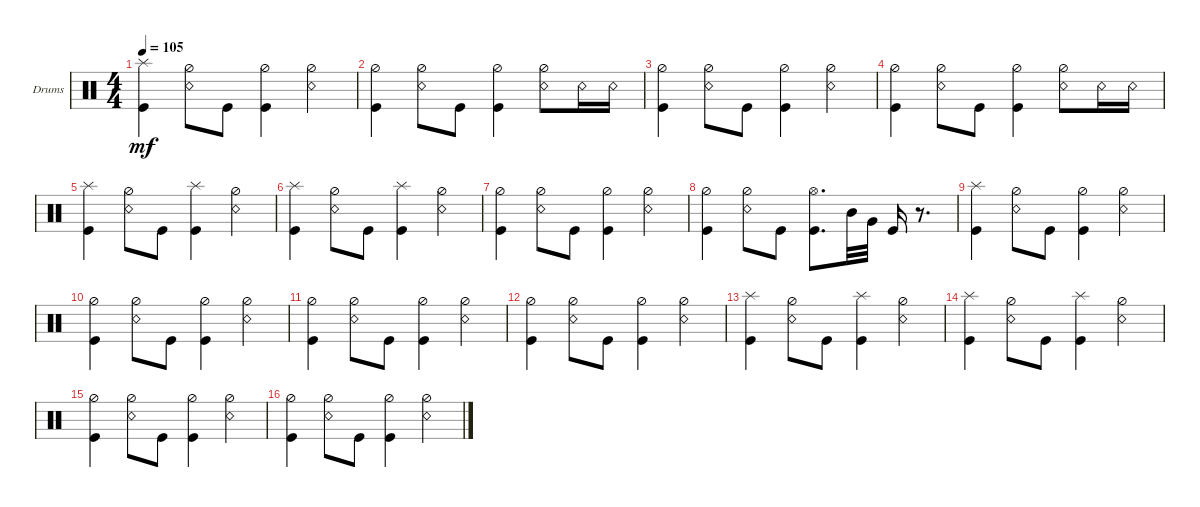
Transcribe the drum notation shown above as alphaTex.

\defaultSystemsLayout 4
\bracketExtendMode groupsimilarinstruments
\firstSystemTrackNameOrientation horizontal
\otherSystemsTrackNameOrientation horizontal
\track ("Drumkit" "Drums") {instrument percussion}
\staff {score}
\articulation defaults
\ts (4 4)
\tempo 105
\clef neutral
\ks c
("Kick (hit)" "Splash (hit)").4{dy mf} ("Snare (rim shot)" "Hi-Hat (half)").8 "Kick (hit)".8 ("Kick (hit)" "Hi-Hat (half)").4 ("Snare (rim shot)" "Hi-Hat (half)").4 |
("Kick (hit)" "Hi-Hat (half)").4 ("Snare (rim shot)" "Hi-Hat (half)").8 "Kick (hit)".8 ("Kick (hit)" "Hi-Hat (half)").4 ("Snare (rim shot)" "Hi-Hat (half)").8 "Snare (rim shot)".16 "Snare (rim shot)".16 |
("Kick (hit)" "Hi-Hat (half)").4 ("Snare (rim shot)" "Hi-Hat (half)").8 "Kick (hit)".8 ("Kick (hit)" "Hi-Hat (half)").4 ("Snare (rim shot)" "Hi-Hat (half)").4 |
("Kick (hit)" "Hi-Hat (half)").4 ("Snare (rim shot)" "Hi-Hat (half)").8 "Kick (hit)".8 ("Kick (hit)" "Hi-Hat (half)").4 ("Snare (rim shot)" "Hi-Hat (half)").8 "Snare (rim shot)".16 "Snare (rim shot)".16 |
("Kick (hit)" "Splash (hit)").4 ("Snare (rim shot)" "Hi-Hat (half)").8 "Kick (hit)".8 ("Kick (hit)" "Splash (hit)").4 ("Snare (rim shot)" "Hi-Hat (half)").4 |
("Kick (hit)" "Splash (hit)").4 ("Snare (rim shot)" "Hi-Hat (half)").8 "Kick (hit)".8 ("Kick (hit)" "Splash (hit)").4 ("Snare (rim shot)" "Hi-Hat (half)").4 |
("Kick (hit)" "Hi-Hat (half)").4 ("Snare (rim shot)" "Hi-Hat (half)").8 "Kick (hit)".8 ("Kick (hit)" "Hi-Hat (half)").4 ("Snare (rim shot)" "Hi-Hat (half)").4 |
("Kick (hit)" "Hi-Hat (half)").4 ("Snare (rim shot)" "Hi-Hat (half)").8 "Kick (hit)".8 ("Kick (hit)" "Hi-Hat (open)").8{d} "Mid Tom (hit)".32 "Very Low Tom (hit)".32 "Kick (hit)".16 r.8{d} |
("Kick (hit)" "Splash (hit)").4 ("Snare (rim shot)" "Hi-Hat (half)").8 "Kick (hit)".8 ("Kick (hit)" "Hi-Hat (half)").4 ("Snare (rim shot)" "Hi-Hat (half)").4 |
("Kick (hit)" "Hi-Hat (half)").4 ("Snare (rim shot)" "Hi-Hat (half)").8 "Kick (hit)".8 ("Kick (hit)" "Hi-Hat (half)").4 ("Snare (rim shot)" "Hi-Hat (half)").4 |
("Kick (hit)" "Hi-Hat (half)").4 ("Snare (rim shot)" "Hi-Hat (half)").8 "Kick (hit)".8 ("Kick (hit)" "Hi-Hat (half)").4 ("Snare (rim shot)" "Hi-Hat (half)").4 |
("Kick (hit)" "Hi-Hat (half)").4 ("Snare (rim shot)" "Hi-Hat (half)").8 "Kick (hit)".8 ("Kick (hit)" "Hi-Hat (half)").4 ("Snare (rim shot)" "Hi-Hat (half)").4 |
("Kick (hit)" "Splash (hit)").4 ("Snare (rim shot)" "Hi-Hat (half)").8 "Kick (hit)".8 ("Kick (hit)" "Splash (hit)").4 ("Snare (rim shot)" "Hi-Hat (half)").4 |
("Kick (hit)" "Splash (hit)").4 ("Snare (rim shot)" "Hi-Hat (half)").8 "Kick (hit)".8 ("Kick (hit)" "Splash (hit)").4 ("Snare (rim shot)" "Hi-Hat (half)").4 |
("Kick (hit)" "Hi-Hat (half)").4 ("Snare (rim shot)" "Hi-Hat (half)").8 "Kick (hit)".8 ("Kick (hit)" "Hi-Hat (half)").4 ("Snare (rim shot)" "Hi-Hat (half)").4 |
("Kick (hit)" "Hi-Hat (half)").4 ("Snare (rim shot)" "Hi-Hat (half)").8 "Kick (hit)".8 ("Kick (hit)" "Hi-Hat (half)").4 ("Snare (rim shot)" "Hi-Hat (half)").4
